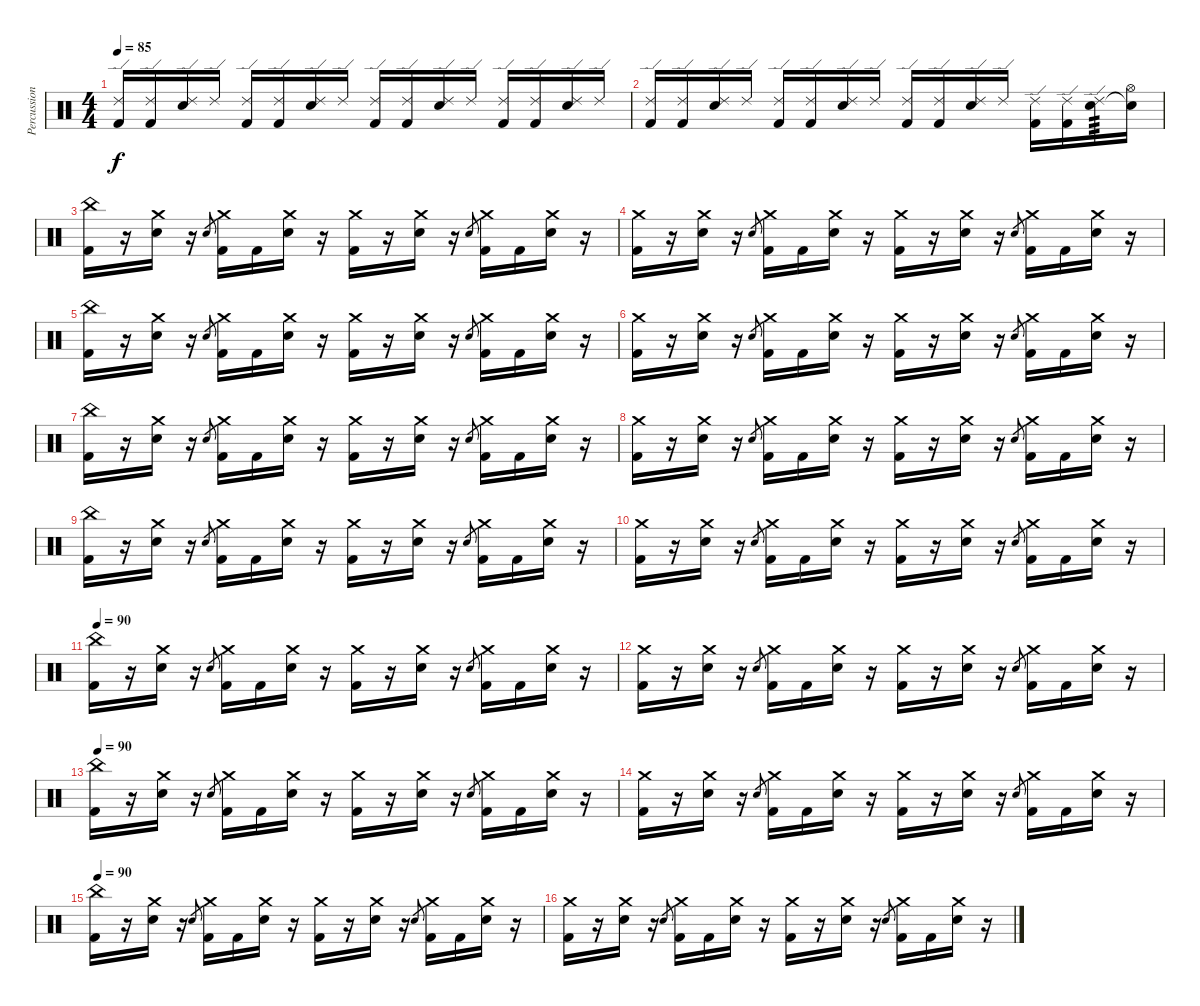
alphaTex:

\track ("Percussioni" "Percussion") {instrument percussion}
\staff {score}
\articulation defaults
\ts (4 4)
\tempo 85
\clef neutral
\ks c
("Ride (edge) 2" "Kick (hit) 2").16{dy f} ("Ride (edge) 2" "Kick (hit) 2").16 ("Ride (edge) 2" "Snare (hit) 2").16 "Ride (edge) 2".16 ("Ride (edge) 2" "Kick (hit) 2").16 ("Ride (edge) 2" "Kick (hit) 2").16 ("Ride (edge) 2" "Snare (hit) 2").16 "Ride (edge) 2".16 ("Ride (edge) 2" "Kick (hit) 2").16 ("Ride (edge) 2" "Kick (hit) 2").16 ("Ride (edge) 2" "Snare (hit) 2").16 "Ride (edge) 2".16 ("Ride (edge) 2" "Kick (hit) 2").16 ("Ride (edge) 2" "Kick (hit) 2").16 ("Ride (edge) 2" "Snare (hit) 2").16 "Ride (edge) 2".16 |
("Ride (edge) 2" "Kick (hit) 2").16 ("Ride (edge) 2" "Kick (hit) 2").16 ("Ride (edge) 2" "Snare (hit) 2").16 "Ride (edge) 2".16 ("Ride (edge) 2" "Kick (hit) 2").16 ("Ride (edge) 2" "Kick (hit) 2").16 ("Ride (edge) 2" "Snare (hit) 2").16 "Ride (edge) 2".16 ("Ride (edge) 2" "Kick (hit) 2").16 ("Ride (edge) 2" "Kick (hit) 2").16 ("Ride (edge) 2" "Snare (hit) 2").16 "Ride (edge) 2".16 ("Ride (edge) 2" "Kick (hit) 2").16 ("Ride (edge) 2" "Kick (hit) 2").16 ("Ride (edge) 2" "Snare (hit) 2").16{tp 3} ("Hi-Hat (open)" "Snare (hit)"{t}).16 |
("China (hit)" "Kick (hit) 2").16 r.16 ("Crash medium (hit)" "Snare (hit) 2").16 r.16 "Snare (hit) 2".8{gr} ("Crash medium (hit)" "Kick (hit) 2").16 "Kick (hit) 2".16 ("Crash medium (hit)" "Snare (hit) 2").16 r.16 ("Crash medium (hit)" "Kick (hit) 2").16 r.16 ("Crash medium (hit)" "Snare (hit) 2").16 r.16 "Snare (hit) 2".8{gr} ("Crash medium (hit)" "Kick (hit) 2").16 "Kick (hit) 2".16 ("Crash medium (hit)" "Snare (hit) 2").16 r.16 |
("Crash medium (hit)" "Kick (hit) 2").16 r.16 ("Crash medium (hit)" "Snare (hit) 2").16 r.16 "Snare (hit) 2".8{gr} ("Crash medium (hit)" "Kick (hit) 2").16 "Kick (hit) 2".16 ("Crash medium (hit)" "Snare (hit) 2").16 r.16 ("Crash medium (hit)" "Kick (hit) 2").16 r.16 ("Crash medium (hit)" "Snare (hit) 2").16 r.16 "Snare (hit) 2".8{gr} ("Crash medium (hit)" "Kick (hit) 2").16 "Kick (hit) 2".16 ("Crash medium (hit)" "Snare (hit) 2").16 r.16 |
("China (hit)" "Kick (hit) 2").16 r.16 ("Crash medium (hit)" "Snare (hit) 2").16 r.16 "Snare (hit) 2".8{gr} ("Crash medium (hit)" "Kick (hit) 2").16 "Kick (hit) 2".16 ("Crash medium (hit)" "Snare (hit) 2").16 r.16 ("Crash medium (hit)" "Kick (hit) 2").16 r.16 ("Crash medium (hit)" "Snare (hit) 2").16 r.16 "Snare (hit) 2".8{gr} ("Crash medium (hit)" "Kick (hit) 2").16 "Kick (hit) 2".16 ("Crash medium (hit)" "Snare (hit) 2").16 r.16 |
("Crash medium (hit)" "Kick (hit) 2").16 r.16 ("Crash medium (hit)" "Snare (hit) 2").16 r.16 "Snare (hit) 2".8{gr} ("Crash medium (hit)" "Kick (hit) 2").16 "Kick (hit) 2".16 ("Crash medium (hit)" "Snare (hit) 2").16 r.16 ("Crash medium (hit)" "Kick (hit) 2").16 r.16 ("Crash medium (hit)" "Snare (hit) 2").16 r.16 "Snare (hit) 2".8{gr} ("Crash medium (hit)" "Kick (hit) 2").16 "Kick (hit) 2".16 ("Crash medium (hit)" "Snare (hit) 2").16 r.16 |
("China (hit)" "Kick (hit) 2").16 r.16 ("Crash medium (hit)" "Snare (hit) 2").16 r.16 "Snare (hit) 2".8{gr} ("Crash medium (hit)" "Kick (hit) 2").16 "Kick (hit) 2".16 ("Crash medium (hit)" "Snare (hit) 2").16 r.16 ("Crash medium (hit)" "Kick (hit) 2").16 r.16 ("Crash medium (hit)" "Snare (hit) 2").16 r.16 "Snare (hit) 2".8{gr} ("Crash medium (hit)" "Kick (hit) 2").16 "Kick (hit) 2".16 ("Crash medium (hit)" "Snare (hit) 2").16 r.16 |
("Crash medium (hit)" "Kick (hit) 2").16 r.16 ("Crash medium (hit)" "Snare (hit) 2").16 r.16 "Snare (hit) 2".8{gr} ("Crash medium (hit)" "Kick (hit) 2").16 "Kick (hit) 2".16 ("Crash medium (hit)" "Snare (hit) 2").16 r.16 ("Crash medium (hit)" "Kick (hit) 2").16 r.16 ("Crash medium (hit)" "Snare (hit) 2").16 r.16 "Snare (hit) 2".8{gr} ("Crash medium (hit)" "Kick (hit) 2").16 "Kick (hit) 2".16 ("Crash medium (hit)" "Snare (hit) 2").16 r.16 |
("China (hit)" "Kick (hit) 2").16 r.16 ("Crash medium (hit)" "Snare (hit) 2").16 r.16 "Snare (hit) 2".8{gr} ("Crash medium (hit)" "Kick (hit) 2").16 "Kick (hit) 2".16 ("Crash medium (hit)" "Snare (hit) 2").16 r.16 ("Crash medium (hit)" "Kick (hit) 2").16 r.16 ("Crash medium (hit)" "Snare (hit) 2").16 r.16 "Snare (hit) 2".8{gr} ("Crash medium (hit)" "Kick (hit) 2").16 "Kick (hit) 2".16 ("Crash medium (hit)" "Snare (hit) 2").16 r.16 |
("Crash medium (hit)" "Kick (hit) 2").16 r.16 ("Crash medium (hit)" "Snare (hit) 2").16 r.16 "Snare (hit) 2".8{gr} ("Crash medium (hit)" "Kick (hit) 2").16 "Kick (hit) 2".16 ("Crash medium (hit)" "Snare (hit) 2").16 r.16 ("Crash medium (hit)" "Kick (hit) 2").16 r.16 ("Crash medium (hit)" "Snare (hit) 2").16 r.16 "Snare (hit) 2".8{gr} ("Crash medium (hit)" "Kick (hit) 2").16 "Kick (hit) 2".16 ("Crash medium (hit)" "Snare (hit) 2").16 r.16 |
\tempo 90
("China (hit)" "Kick (hit) 2").16 r.16 ("Crash medium (hit)" "Snare (hit) 2").16 r.16 "Snare (hit) 2".8{gr} ("Crash medium (hit)" "Kick (hit) 2").16 "Kick (hit) 2".16 ("Crash medium (hit)" "Snare (hit) 2").16 r.16 ("Crash medium (hit)" "Kick (hit) 2").16 r.16 ("Crash medium (hit)" "Snare (hit) 2").16 r.16 "Snare (hit) 2".8{gr} ("Crash medium (hit)" "Kick (hit) 2").16 "Kick (hit) 2".16 ("Crash medium (hit)" "Snare (hit) 2").16 r.16 |
("Crash medium (hit)" "Kick (hit) 2").16 r.16 ("Crash medium (hit)" "Snare (hit) 2").16 r.16 "Snare (hit) 2".8{gr} ("Crash medium (hit)" "Kick (hit) 2").16 "Kick (hit) 2".16 ("Crash medium (hit)" "Snare (hit) 2").16 r.16 ("Crash medium (hit)" "Kick (hit) 2").16 r.16 ("Crash medium (hit)" "Snare (hit) 2").16 r.16 "Snare (hit) 2".8{gr} ("Crash medium (hit)" "Kick (hit) 2").16 "Kick (hit) 2".16 ("Crash medium (hit)" "Snare (hit) 2").16 r.16 |
\tempo 90
("China (hit)" "Kick (hit) 2").16 r.16 ("Crash medium (hit)" "Snare (hit) 2").16 r.16 "Snare (hit) 2".8{gr} ("Crash medium (hit)" "Kick (hit) 2").16 "Kick (hit) 2".16 ("Crash medium (hit)" "Snare (hit) 2").16 r.16 ("Crash medium (hit)" "Kick (hit) 2").16 r.16 ("Crash medium (hit)" "Snare (hit) 2").16 r.16 "Snare (hit) 2".8{gr} ("Crash medium (hit)" "Kick (hit) 2").16 "Kick (hit) 2".16 ("Crash medium (hit)" "Snare (hit) 2").16 r.16 |
("Crash medium (hit)" "Kick (hit) 2").16 r.16 ("Crash medium (hit)" "Snare (hit) 2").16 r.16 "Snare (hit) 2".8{gr} ("Crash medium (hit)" "Kick (hit) 2").16 "Kick (hit) 2".16 ("Crash medium (hit)" "Snare (hit) 2").16 r.16 ("Crash medium (hit)" "Kick (hit) 2").16 r.16 ("Crash medium (hit)" "Snare (hit) 2").16 r.16 "Snare (hit) 2".8{gr} ("Crash medium (hit)" "Kick (hit) 2").16 "Kick (hit) 2".16 ("Crash medium (hit)" "Snare (hit) 2").16 r.16 |
\tempo 90
("China (hit)" "Kick (hit) 2").16 r.16 ("Crash medium (hit)" "Snare (hit) 2").16 r.16 "Snare (hit) 2".8{gr} ("Crash medium (hit)" "Kick (hit) 2").16 "Kick (hit) 2".16 ("Crash medium (hit)" "Snare (hit) 2").16 r.16 ("Crash medium (hit)" "Kick (hit) 2").16 r.16 ("Crash medium (hit)" "Snare (hit) 2").16 r.16 "Snare (hit) 2".8{gr} ("Crash medium (hit)" "Kick (hit) 2").16 "Kick (hit) 2".16 ("Crash medium (hit)" "Snare (hit) 2").16 r.16 |
("Crash medium (hit)" "Kick (hit) 2").16 r.16 ("Crash medium (hit)" "Snare (hit) 2").16 r.16 "Snare (hit) 2".8{gr} ("Crash medium (hit)" "Kick (hit) 2").16 "Kick (hit) 2".16 ("Crash medium (hit)" "Snare (hit) 2").16 r.16 ("Crash medium (hit)" "Kick (hit) 2").16 r.16 ("Crash medium (hit)" "Snare (hit) 2").16 r.16 "Snare (hit) 2".8{gr} ("Crash medium (hit)" "Kick (hit) 2").16 "Kick (hit) 2".16 ("Crash medium (hit)" "Snare (hit) 2").16 r.16
